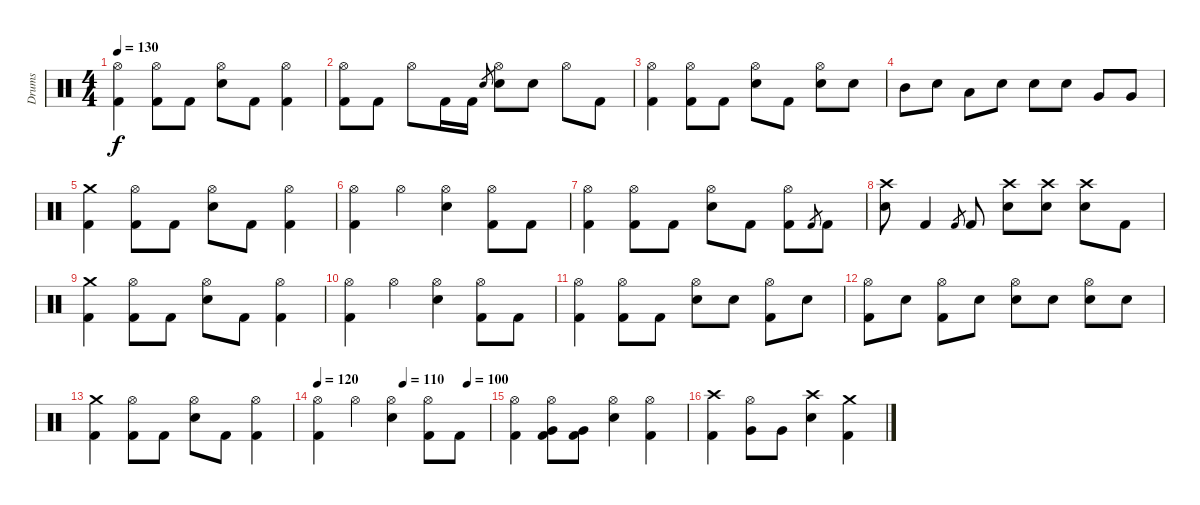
\track ("Drums" "Drums") {instrument percussion}
\staff {score}
\articulation defaults
\ts (4 4)
\tempo 130
\clef neutral
\ks c
("Hi-Hat (open)" "Kick (hit) 2").4{dy f} ("Hi-Hat (open)" "Kick (hit) 2").8 "Kick (hit) 2".8 ("Hi-Hat (open)" "Electric Snare (hit)").8 "Kick (hit) 2".8 ("Hi-Hat (open)" "Kick (hit) 2").4 |
("Hi-Hat (open)" "Kick (hit) 2").8 "Kick (hit) 2".8 "Hi-Hat (open)".8 "Kick (hit) 2".16 "Kick (hit) 2".16 "Electric Snare (hit)".8{gr} ("Hi-Hat (open)" "Electric Snare (hit)").8 "Electric Snare (hit)".8 "Hi-Hat (open)".8 "Kick (hit) 2".8 |
("Hi-Hat (open)" "Kick (hit) 2").4 ("Hi-Hat (open)" "Kick (hit) 2").8 "Kick (hit) 2".8 ("Hi-Hat (open)" "Electric Snare (hit)").8 "Kick (hit) 2".8 ("Hi-Hat (open)" "Electric Snare (hit)").8 "Electric Snare (hit)".8 |
"Mid Tom (hit)".8 "Electric Snare (hit)".8 "Low Tom (hit)".8 "Electric Snare (hit)".8 "Electric Snare (hit)".8 "Electric Snare (hit)".8 "Very Low Tom (hit)".8 "Very Low Tom (hit)".8 |
("Crash medium (hit)" "Kick (hit) 2").4 ("Hi-Hat (open)" "Kick (hit) 2").8 "Kick (hit) 2".8 ("Hi-Hat (open)" "Electric Snare (hit)").8 "Kick (hit) 2".8 ("Hi-Hat (open)" "Kick (hit) 2").4 |
("Hi-Hat (open)" "Kick (hit) 2").4 "Hi-Hat (open)".4 ("Hi-Hat (open)" "Electric Snare (hit)").4 ("Hi-Hat (open)" "Kick (hit) 2").8 "Kick (hit) 2".8 |
("Hi-Hat (open)" "Kick (hit) 2").4 ("Hi-Hat (open)" "Kick (hit) 2").8 "Kick (hit) 2".8 ("Hi-Hat (open)" "Electric Snare (hit)").8 "Kick (hit) 2".8 ("Hi-Hat (open)" "Kick (hit) 2").8 "Kick (hit) 2".8{gr} "Kick (hit) 2".8 |
("Crash high (hit)" "Electric Snare (hit)").8 "Kick (hit) 2".4 "Kick (hit) 2".8{gr} "Kick (hit) 2".8 ("Crash high (hit)" "Electric Snare (hit)").8 ("Crash high (hit)" "Electric Snare (hit)").8 ("Crash high (hit)" "Electric Snare (hit)").8 "Kick (hit) 2".8 |
("Crash medium (hit)" "Kick (hit) 2").4 ("Hi-Hat (open)" "Kick (hit) 2").8 "Kick (hit) 2".8 ("Hi-Hat (open)" "Electric Snare (hit)").8 "Kick (hit) 2".8 ("Hi-Hat (open)" "Kick (hit) 2").4 |
("Hi-Hat (open)" "Kick (hit) 2").4 "Hi-Hat (open)".4 ("Hi-Hat (open)" "Electric Snare (hit)").4 ("Hi-Hat (open)" "Kick (hit) 2").8 "Kick (hit) 2".8 |
("Hi-Hat (open)" "Kick (hit) 2").4 ("Hi-Hat (open)" "Kick (hit) 2").8 "Kick (hit) 2".8 ("Hi-Hat (open)" "Electric Snare (hit)").8 "Electric Snare (hit)".8 ("Hi-Hat (open)" "Kick (hit) 2").8 "Electric Snare (hit)".8 |
("Hi-Hat (open)" "Kick (hit) 2").8 "Electric Snare (hit)".8 ("Hi-Hat (open)" "Kick (hit) 2").8 "Electric Snare (hit)".8 ("Hi-Hat (open)" "Electric Snare (hit)").8 "Electric Snare (hit)".8 ("Hi-Hat (open)" "Electric Snare (hit)").8 "Electric Snare (hit)".8 |
("Crash medium (hit)" "Kick (hit) 2").4 ("Hi-Hat (open)" "Kick (hit) 2").8 "Kick (hit) 2".8 ("Hi-Hat (open)" "Electric Snare (hit)").8 "Kick (hit) 2".8 ("Hi-Hat (open)" "Kick (hit) 2").4 |
\tempo 120
\tempo (110 0.5)
\tempo (100 0.875)
("Hi-Hat (open)" "Kick (hit) 2").4 "Hi-Hat (open)".4 ("Hi-Hat (open)" "Electric Snare (hit)").4 ("Hi-Hat (open)" "Kick (hit) 2").8 "Kick (hit) 2".8 |
("Hi-Hat (open)" "Kick (hit) 2").4 ("Hi-Hat (open)" "Very Low Tom (hit)" "Kick (hit) 2").8 ("Very Low Tom (hit)" "Kick (hit) 2").8 ("Hi-Hat (open)" "Electric Snare (hit)").4 ("Hi-Hat (open)" "Kick (hit) 2").4 |
("Crash high (hit)" "Kick (hit) 2").4 ("Hi-Hat (open)" "Very Low Tom (hit)").8 "Very Low Tom (hit)".8 ("Crash high (hit)" "Electric Snare (hit)").4 ("Crash medium (hit)" "Kick (hit) 2").4
